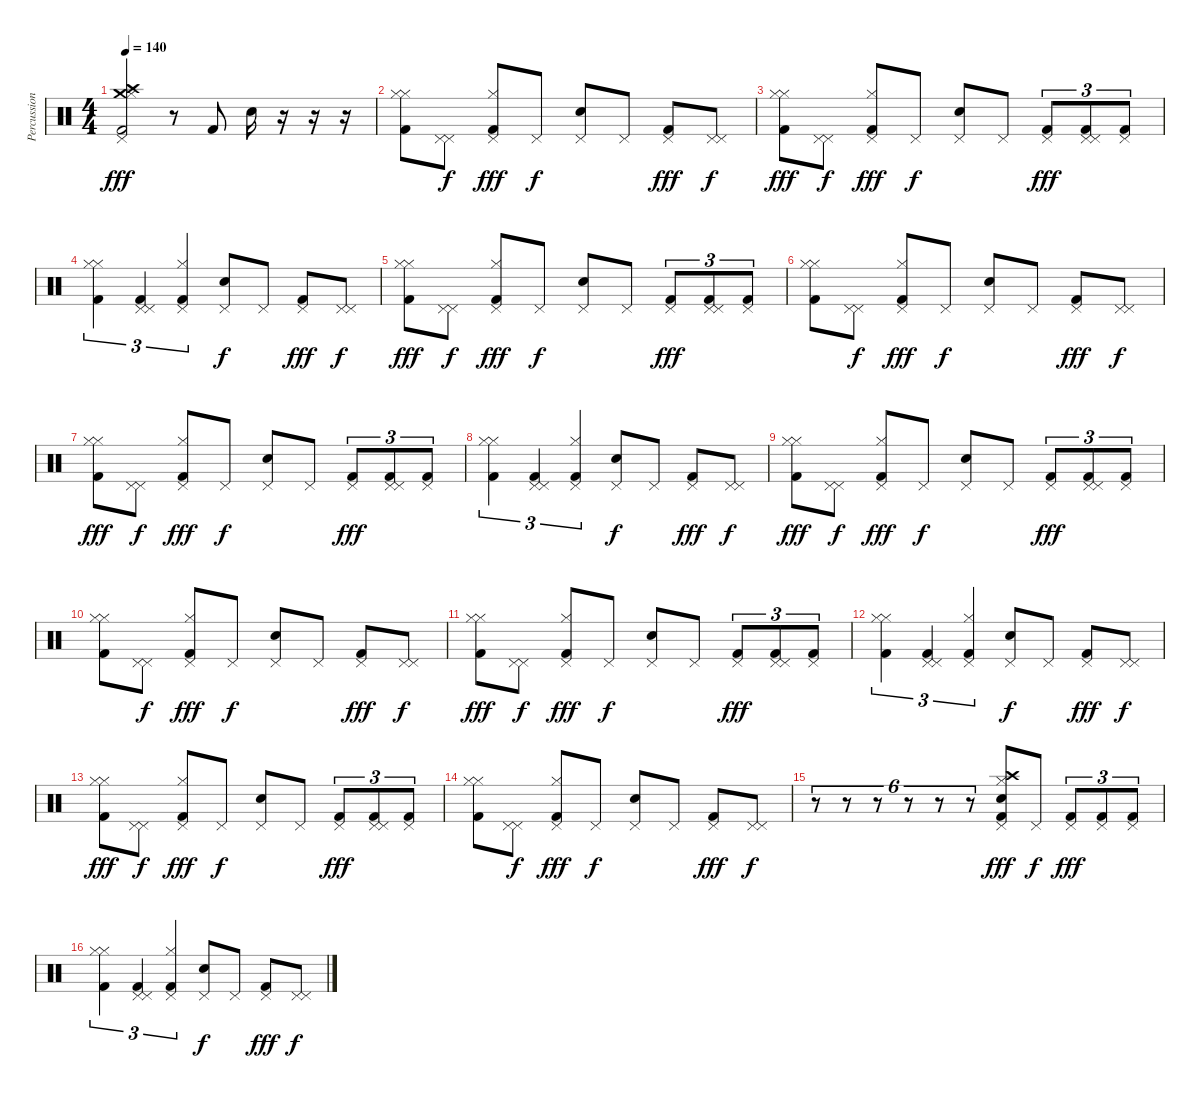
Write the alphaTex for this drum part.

\track ("Percussion" "Percussion") {instrument percussion}
\staff {score}
\articulation defaults
\ts (4 4)
\tempo 140
\clef neutral
\ks c
("Pedal Hi-Hat (hit)" "Crash medium (hit)" "Hi-Hat (closed)" "Crash high (hit)" "Kick (hit) 2").2{dy fff} r.8 "Kick (hit) 2".8 "Electric Snare (hit)".16 r.16 r.16 r.16 |
("Hi-Hat (closed)" "Hi-Hat (closed)" "Kick (hit) 2").8 ("Pedal Hi-Hat (hit)" "Pedal Hi-Hat (hit)").8{dy f} ("Pedal Hi-Hat (hit)" "Hi-Hat (closed)" "Kick (hit) 2").8{dy fff} "Pedal Hi-Hat (hit)".8{dy f} ("Pedal Hi-Hat (hit)" "Electric Snare (hit)").8 "Pedal Hi-Hat (hit)".8 ("Pedal Hi-Hat (hit)" "Kick (hit) 2").8{dy fff} ("Pedal Hi-Hat (hit)" "Pedal Hi-Hat (hit)").8{dy f} |
("Hi-Hat (closed)" "Hi-Hat (closed)" "Kick (hit) 2").8{dy fff} ("Pedal Hi-Hat (hit)" "Pedal Hi-Hat (hit)").8{dy f} ("Pedal Hi-Hat (hit)" "Hi-Hat (closed)" "Kick (hit) 2").8{dy fff} "Pedal Hi-Hat (hit)".8{dy f} ("Pedal Hi-Hat (hit)" "Electric Snare (hit)").8 "Pedal Hi-Hat (hit)".8 ("Pedal Hi-Hat (hit)" "Kick (hit) 2").8{tu (3 2) dy fff} ("Pedal Hi-Hat (hit)" "Pedal Hi-Hat (hit)" "Kick (hit) 2").8{tu (3 2)} ("Pedal Hi-Hat (hit)" "Kick (hit) 2").8{tu (3 2)} |
("Hi-Hat (closed)" "Hi-Hat (closed)" "Kick (hit) 2").4{tu (3 2)} ("Pedal Hi-Hat (hit)" "Pedal Hi-Hat (hit)" "Kick (hit) 2").4{tu (3 2)} ("Pedal Hi-Hat (hit)" "Hi-Hat (closed)" "Kick (hit) 2").4{tu (3 2)} ("Pedal Hi-Hat (hit)" "Electric Snare (hit)").8{dy f} "Pedal Hi-Hat (hit)".8 ("Pedal Hi-Hat (hit)" "Kick (hit) 2").8{dy fff} ("Pedal Hi-Hat (hit)" "Pedal Hi-Hat (hit)").8{dy f} |
("Hi-Hat (closed)" "Hi-Hat (closed)" "Kick (hit) 2").8{dy fff} ("Pedal Hi-Hat (hit)" "Pedal Hi-Hat (hit)").8{dy f} ("Pedal Hi-Hat (hit)" "Hi-Hat (closed)" "Kick (hit) 2").8{dy fff} "Pedal Hi-Hat (hit)".8{dy f} ("Pedal Hi-Hat (hit)" "Electric Snare (hit)").8 "Pedal Hi-Hat (hit)".8 ("Pedal Hi-Hat (hit)" "Kick (hit) 2").8{tu (3 2) dy fff} ("Pedal Hi-Hat (hit)" "Pedal Hi-Hat (hit)" "Kick (hit) 2").8{tu (3 2)} ("Pedal Hi-Hat (hit)" "Kick (hit) 2").8{tu (3 2)} |
("Hi-Hat (closed)" "Hi-Hat (closed)" "Kick (hit) 2").8 ("Pedal Hi-Hat (hit)" "Pedal Hi-Hat (hit)").8{dy f} ("Pedal Hi-Hat (hit)" "Hi-Hat (closed)" "Kick (hit) 2").8{dy fff} "Pedal Hi-Hat (hit)".8{dy f} ("Pedal Hi-Hat (hit)" "Electric Snare (hit)").8 "Pedal Hi-Hat (hit)".8 ("Pedal Hi-Hat (hit)" "Kick (hit) 2").8{dy fff} ("Pedal Hi-Hat (hit)" "Pedal Hi-Hat (hit)").8{dy f} |
("Hi-Hat (closed)" "Hi-Hat (closed)" "Kick (hit) 2").8{dy fff} ("Pedal Hi-Hat (hit)" "Pedal Hi-Hat (hit)").8{dy f} ("Pedal Hi-Hat (hit)" "Hi-Hat (closed)" "Kick (hit) 2").8{dy fff} "Pedal Hi-Hat (hit)".8{dy f} ("Pedal Hi-Hat (hit)" "Electric Snare (hit)").8 "Pedal Hi-Hat (hit)".8 ("Pedal Hi-Hat (hit)" "Kick (hit) 2").8{tu (3 2) dy fff} ("Pedal Hi-Hat (hit)" "Pedal Hi-Hat (hit)" "Kick (hit) 2").8{tu (3 2)} ("Pedal Hi-Hat (hit)" "Kick (hit) 2").8{tu (3 2)} |
("Hi-Hat (closed)" "Hi-Hat (closed)" "Kick (hit) 2").4{tu (3 2)} ("Pedal Hi-Hat (hit)" "Pedal Hi-Hat (hit)" "Kick (hit) 2").4{tu (3 2)} ("Pedal Hi-Hat (hit)" "Hi-Hat (closed)" "Kick (hit) 2").4{tu (3 2)} ("Pedal Hi-Hat (hit)" "Electric Snare (hit)").8{dy f} "Pedal Hi-Hat (hit)".8 ("Pedal Hi-Hat (hit)" "Kick (hit) 2").8{dy fff} ("Pedal Hi-Hat (hit)" "Pedal Hi-Hat (hit)").8{dy f} |
("Hi-Hat (closed)" "Hi-Hat (closed)" "Kick (hit) 2").8{dy fff} ("Pedal Hi-Hat (hit)" "Pedal Hi-Hat (hit)").8{dy f} ("Pedal Hi-Hat (hit)" "Hi-Hat (closed)" "Kick (hit) 2").8{dy fff} "Pedal Hi-Hat (hit)".8{dy f} ("Pedal Hi-Hat (hit)" "Electric Snare (hit)").8 "Pedal Hi-Hat (hit)".8 ("Pedal Hi-Hat (hit)" "Kick (hit) 2").8{tu (3 2) dy fff} ("Pedal Hi-Hat (hit)" "Pedal Hi-Hat (hit)" "Kick (hit) 2").8{tu (3 2)} ("Pedal Hi-Hat (hit)" "Kick (hit) 2").8{tu (3 2)} |
("Hi-Hat (closed)" "Hi-Hat (closed)" "Kick (hit) 2").8 ("Pedal Hi-Hat (hit)" "Pedal Hi-Hat (hit)").8{dy f} ("Pedal Hi-Hat (hit)" "Hi-Hat (closed)" "Kick (hit) 2").8{dy fff} "Pedal Hi-Hat (hit)".8{dy f} ("Pedal Hi-Hat (hit)" "Electric Snare (hit)").8 "Pedal Hi-Hat (hit)".8 ("Pedal Hi-Hat (hit)" "Kick (hit) 2").8{dy fff} ("Pedal Hi-Hat (hit)" "Pedal Hi-Hat (hit)").8{dy f} |
("Hi-Hat (closed)" "Hi-Hat (closed)" "Kick (hit) 2").8{dy fff} ("Pedal Hi-Hat (hit)" "Pedal Hi-Hat (hit)").8{dy f} ("Pedal Hi-Hat (hit)" "Hi-Hat (closed)" "Kick (hit) 2").8{dy fff} "Pedal Hi-Hat (hit)".8{dy f} ("Pedal Hi-Hat (hit)" "Electric Snare (hit)").8 "Pedal Hi-Hat (hit)".8 ("Pedal Hi-Hat (hit)" "Kick (hit) 2").8{tu (3 2) dy fff} ("Pedal Hi-Hat (hit)" "Pedal Hi-Hat (hit)" "Kick (hit) 2").8{tu (3 2)} ("Pedal Hi-Hat (hit)" "Kick (hit) 2").8{tu (3 2)} |
("Hi-Hat (closed)" "Hi-Hat (closed)" "Kick (hit) 2").4{tu (3 2)} ("Pedal Hi-Hat (hit)" "Pedal Hi-Hat (hit)" "Kick (hit) 2").4{tu (3 2)} ("Pedal Hi-Hat (hit)" "Hi-Hat (closed)" "Kick (hit) 2").4{tu (3 2)} ("Pedal Hi-Hat (hit)" "Electric Snare (hit)").8{dy f} "Pedal Hi-Hat (hit)".8 ("Pedal Hi-Hat (hit)" "Kick (hit) 2").8{dy fff} ("Pedal Hi-Hat (hit)" "Pedal Hi-Hat (hit)").8{dy f} |
("Hi-Hat (closed)" "Hi-Hat (closed)" "Kick (hit) 2").8{dy fff} ("Pedal Hi-Hat (hit)" "Pedal Hi-Hat (hit)").8{dy f} ("Pedal Hi-Hat (hit)" "Hi-Hat (closed)" "Kick (hit) 2").8{dy fff} "Pedal Hi-Hat (hit)".8{dy f} ("Pedal Hi-Hat (hit)" "Electric Snare (hit)").8 "Pedal Hi-Hat (hit)".8 ("Pedal Hi-Hat (hit)" "Kick (hit) 2").8{tu (3 2) dy fff} ("Pedal Hi-Hat (hit)" "Pedal Hi-Hat (hit)" "Kick (hit) 2").8{tu (3 2)} ("Pedal Hi-Hat (hit)" "Kick (hit) 2").8{tu (3 2)} |
("Hi-Hat (closed)" "Hi-Hat (closed)" "Kick (hit) 2").8 ("Pedal Hi-Hat (hit)" "Pedal Hi-Hat (hit)").8{dy f} ("Pedal Hi-Hat (hit)" "Hi-Hat (closed)" "Kick (hit) 2").8{dy fff} "Pedal Hi-Hat (hit)".8{dy f} ("Pedal Hi-Hat (hit)" "Electric Snare (hit)").8 "Pedal Hi-Hat (hit)".8 ("Pedal Hi-Hat (hit)" "Kick (hit) 2").8{dy fff} ("Pedal Hi-Hat (hit)" "Pedal Hi-Hat (hit)").8{dy f} |
r.8{tu (6 4)} r.8{tu (6 4)} r.8{tu (6 4)} r.8{tu (6 4)} r.8{tu (6 4)} r.8{tu (6 4)} ("Pedal Hi-Hat (hit)" "Crash high (hit)" "Hi-Hat (closed)" "Electric Snare (hit)" "Kick (hit) 2").8{dy fff} "Pedal Hi-Hat (hit)".8{dy f} ("Pedal Hi-Hat (hit)" "Kick (hit) 2").8{tu (3 2) dy fff} ("Pedal Hi-Hat (hit)" "Kick (hit) 2").8{tu (3 2)} ("Pedal Hi-Hat (hit)" "Kick (hit) 2").8{tu (3 2)} |
("Hi-Hat (closed)" "Hi-Hat (closed)" "Kick (hit) 2").4{tu (3 2)} ("Pedal Hi-Hat (hit)" "Pedal Hi-Hat (hit)" "Kick (hit) 2").4{tu (3 2)} ("Pedal Hi-Hat (hit)" "Hi-Hat (closed)" "Kick (hit) 2").4{tu (3 2)} ("Pedal Hi-Hat (hit)" "Electric Snare (hit)").8{dy f} "Pedal Hi-Hat (hit)".8 ("Pedal Hi-Hat (hit)" "Kick (hit) 2").8{dy fff} ("Pedal Hi-Hat (hit)" "Pedal Hi-Hat (hit)").8{dy f}
